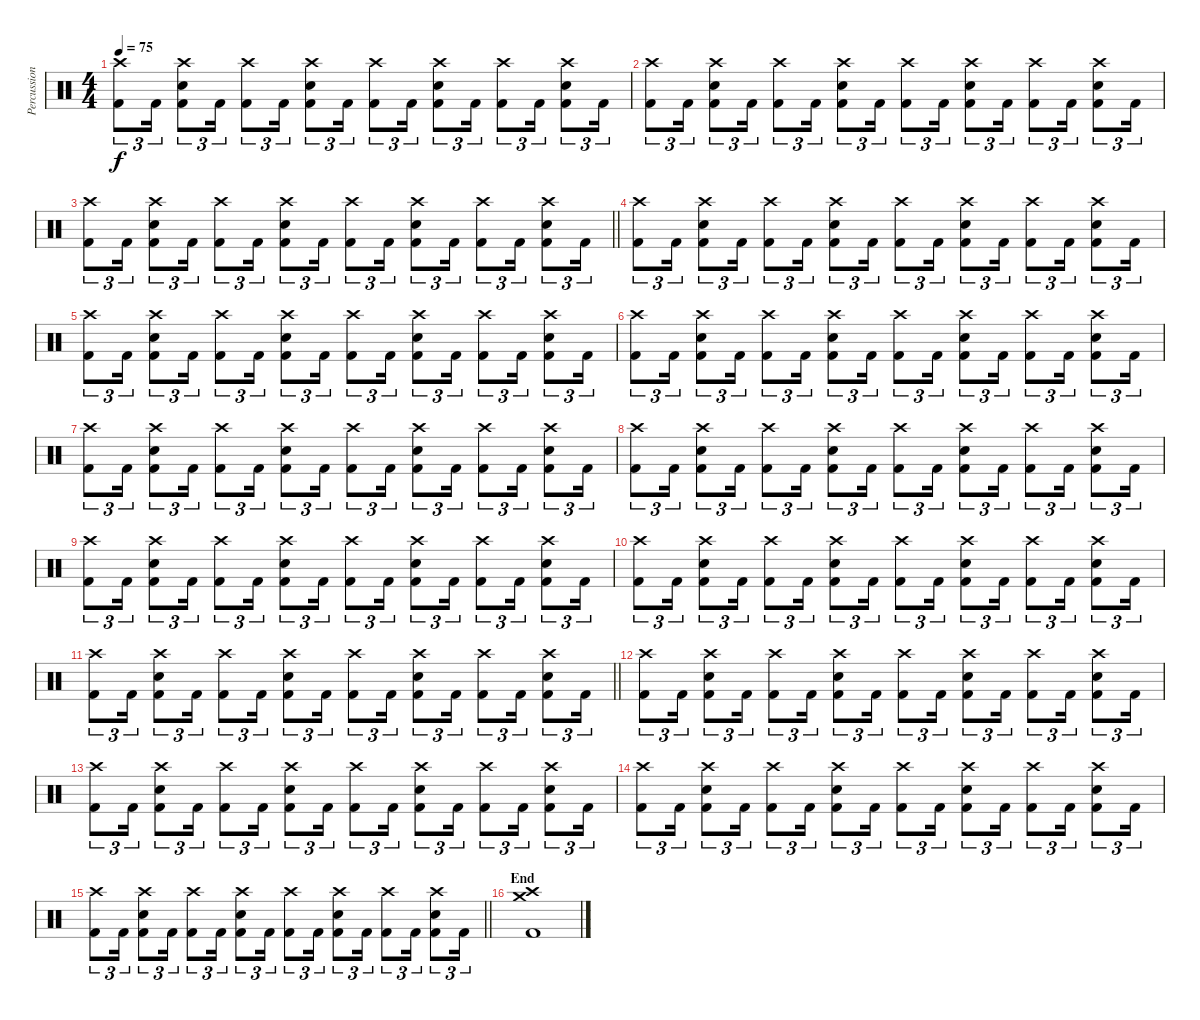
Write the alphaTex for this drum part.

\track ("Percussion" "Percussion") {instrument percussion}
\staff {score}
\articulation defaults
\ts (4 4)
\tempo 75
\clef neutral
\ks c
("Crash high (hit)" "Kick (hit) 2").8{tu (3 2) dy f} "Kick (hit) 2".16{tu (3 2)} ("Crash high (hit)" "Electric Snare (hit)" "Kick (hit) 2").8{tu (3 2)} "Kick (hit) 2".16{tu (3 2)} ("Crash high (hit)" "Kick (hit) 2").8{tu (3 2)} "Kick (hit) 2".16{tu (3 2)} ("Crash high (hit)" "Electric Snare (hit)" "Kick (hit) 2").8{tu (3 2)} "Kick (hit) 2".16{tu (3 2)} ("Crash high (hit)" "Kick (hit) 2").8{tu (3 2)} "Kick (hit) 2".16{tu (3 2)} ("Crash high (hit)" "Electric Snare (hit)" "Kick (hit) 2").8{tu (3 2)} "Kick (hit) 2".16{tu (3 2)} ("Crash high (hit)" "Kick (hit) 2").8{tu (3 2)} "Kick (hit) 2".16{tu (3 2)} ("Crash high (hit)" "Electric Snare (hit)" "Kick (hit) 2").8{tu (3 2)} "Kick (hit) 2".16{tu (3 2)} |
("Crash high (hit)" "Kick (hit) 2").8{tu (3 2)} "Kick (hit) 2".16{tu (3 2)} ("Crash high (hit)" "Electric Snare (hit)" "Kick (hit) 2").8{tu (3 2)} "Kick (hit) 2".16{tu (3 2)} ("Crash high (hit)" "Kick (hit) 2").8{tu (3 2)} "Kick (hit) 2".16{tu (3 2)} ("Crash high (hit)" "Electric Snare (hit)" "Kick (hit) 2").8{tu (3 2)} "Kick (hit) 2".16{tu (3 2)} ("Crash high (hit)" "Kick (hit) 2").8{tu (3 2)} "Kick (hit) 2".16{tu (3 2)} ("Crash high (hit)" "Electric Snare (hit)" "Kick (hit) 2").8{tu (3 2)} "Kick (hit) 2".16{tu (3 2)} ("Crash high (hit)" "Kick (hit) 2").8{tu (3 2)} "Kick (hit) 2".16{tu (3 2)} ("Crash high (hit)" "Electric Snare (hit)" "Kick (hit) 2").8{tu (3 2)} "Kick (hit) 2".16{tu (3 2)} |
\barLineRight lightlight
("Crash high (hit)" "Kick (hit) 2").8{tu (3 2)} "Kick (hit) 2".16{tu (3 2)} ("Crash high (hit)" "Electric Snare (hit)" "Kick (hit) 2").8{tu (3 2)} "Kick (hit) 2".16{tu (3 2)} ("Crash high (hit)" "Kick (hit) 2").8{tu (3 2)} "Kick (hit) 2".16{tu (3 2)} ("Crash high (hit)" "Electric Snare (hit)" "Kick (hit) 2").8{tu (3 2)} "Kick (hit) 2".16{tu (3 2)} ("Crash high (hit)" "Kick (hit) 2").8{tu (3 2)} "Kick (hit) 2".16{tu (3 2)} ("Crash high (hit)" "Electric Snare (hit)" "Kick (hit) 2").8{tu (3 2)} "Kick (hit) 2".16{tu (3 2)} ("Crash high (hit)" "Kick (hit) 2").8{tu (3 2)} "Kick (hit) 2".16{tu (3 2)} ("Crash high (hit)" "Electric Snare (hit)" "Kick (hit) 2").8{tu (3 2)} "Kick (hit) 2".16{tu (3 2)} |
\section ("" "")
("Crash high (hit)" "Kick (hit) 2").8{tu (3 2)} "Kick (hit) 2".16{tu (3 2)} ("Crash high (hit)" "Electric Snare (hit)" "Kick (hit) 2").8{tu (3 2)} "Kick (hit) 2".16{tu (3 2)} ("Crash high (hit)" "Kick (hit) 2").8{tu (3 2)} "Kick (hit) 2".16{tu (3 2)} ("Crash high (hit)" "Electric Snare (hit)" "Kick (hit) 2").8{tu (3 2)} "Kick (hit) 2".16{tu (3 2)} ("Crash high (hit)" "Kick (hit) 2").8{tu (3 2)} "Kick (hit) 2".16{tu (3 2)} ("Crash high (hit)" "Electric Snare (hit)" "Kick (hit) 2").8{tu (3 2)} "Kick (hit) 2".16{tu (3 2)} ("Crash high (hit)" "Kick (hit) 2").8{tu (3 2)} "Kick (hit) 2".16{tu (3 2)} ("Crash high (hit)" "Electric Snare (hit)" "Kick (hit) 2").8{tu (3 2)} "Kick (hit) 2".16{tu (3 2)} |
("Crash high (hit)" "Kick (hit) 2").8{tu (3 2)} "Kick (hit) 2".16{tu (3 2)} ("Crash high (hit)" "Electric Snare (hit)" "Kick (hit) 2").8{tu (3 2)} "Kick (hit) 2".16{tu (3 2)} ("Crash high (hit)" "Kick (hit) 2").8{tu (3 2)} "Kick (hit) 2".16{tu (3 2)} ("Crash high (hit)" "Electric Snare (hit)" "Kick (hit) 2").8{tu (3 2)} "Kick (hit) 2".16{tu (3 2)} ("Crash high (hit)" "Kick (hit) 2").8{tu (3 2)} "Kick (hit) 2".16{tu (3 2)} ("Crash high (hit)" "Electric Snare (hit)" "Kick (hit) 2").8{tu (3 2)} "Kick (hit) 2".16{tu (3 2)} ("Crash high (hit)" "Kick (hit) 2").8{tu (3 2)} "Kick (hit) 2".16{tu (3 2)} ("Crash high (hit)" "Electric Snare (hit)" "Kick (hit) 2").8{tu (3 2)} "Kick (hit) 2".16{tu (3 2)} |
("Crash high (hit)" "Kick (hit) 2").8{tu (3 2)} "Kick (hit) 2".16{tu (3 2)} ("Crash high (hit)" "Electric Snare (hit)" "Kick (hit) 2").8{tu (3 2)} "Kick (hit) 2".16{tu (3 2)} ("Crash high (hit)" "Kick (hit) 2").8{tu (3 2)} "Kick (hit) 2".16{tu (3 2)} ("Crash high (hit)" "Electric Snare (hit)" "Kick (hit) 2").8{tu (3 2)} "Kick (hit) 2".16{tu (3 2)} ("Crash high (hit)" "Kick (hit) 2").8{tu (3 2)} "Kick (hit) 2".16{tu (3 2)} ("Crash high (hit)" "Electric Snare (hit)" "Kick (hit) 2").8{tu (3 2)} "Kick (hit) 2".16{tu (3 2)} ("Crash high (hit)" "Kick (hit) 2").8{tu (3 2)} "Kick (hit) 2".16{tu (3 2)} ("Crash high (hit)" "Electric Snare (hit)" "Kick (hit) 2").8{tu (3 2)} "Kick (hit) 2".16{tu (3 2)} |
("Crash high (hit)" "Kick (hit) 2").8{tu (3 2)} "Kick (hit) 2".16{tu (3 2)} ("Crash high (hit)" "Electric Snare (hit)" "Kick (hit) 2").8{tu (3 2)} "Kick (hit) 2".16{tu (3 2)} ("Crash high (hit)" "Kick (hit) 2").8{tu (3 2)} "Kick (hit) 2".16{tu (3 2)} ("Crash high (hit)" "Electric Snare (hit)" "Kick (hit) 2").8{tu (3 2)} "Kick (hit) 2".16{tu (3 2)} ("Crash high (hit)" "Kick (hit) 2").8{tu (3 2)} "Kick (hit) 2".16{tu (3 2)} ("Crash high (hit)" "Electric Snare (hit)" "Kick (hit) 2").8{tu (3 2)} "Kick (hit) 2".16{tu (3 2)} ("Crash high (hit)" "Kick (hit) 2").8{tu (3 2)} "Kick (hit) 2".16{tu (3 2)} ("Crash high (hit)" "Electric Snare (hit)" "Kick (hit) 2").8{tu (3 2)} "Kick (hit) 2".16{tu (3 2)} |
("Crash high (hit)" "Kick (hit) 2").8{tu (3 2)} "Kick (hit) 2".16{tu (3 2)} ("Crash high (hit)" "Electric Snare (hit)" "Kick (hit) 2").8{tu (3 2)} "Kick (hit) 2".16{tu (3 2)} ("Crash high (hit)" "Kick (hit) 2").8{tu (3 2)} "Kick (hit) 2".16{tu (3 2)} ("Crash high (hit)" "Electric Snare (hit)" "Kick (hit) 2").8{tu (3 2)} "Kick (hit) 2".16{tu (3 2)} ("Crash high (hit)" "Kick (hit) 2").8{tu (3 2)} "Kick (hit) 2".16{tu (3 2)} ("Crash high (hit)" "Electric Snare (hit)" "Kick (hit) 2").8{tu (3 2)} "Kick (hit) 2".16{tu (3 2)} ("Crash high (hit)" "Kick (hit) 2").8{tu (3 2)} "Kick (hit) 2".16{tu (3 2)} ("Crash high (hit)" "Electric Snare (hit)" "Kick (hit) 2").8{tu (3 2)} "Kick (hit) 2".16{tu (3 2)} |
("Crash high (hit)" "Kick (hit) 2").8{tu (3 2)} "Kick (hit) 2".16{tu (3 2)} ("Crash high (hit)" "Electric Snare (hit)" "Kick (hit) 2").8{tu (3 2)} "Kick (hit) 2".16{tu (3 2)} ("Crash high (hit)" "Kick (hit) 2").8{tu (3 2)} "Kick (hit) 2".16{tu (3 2)} ("Crash high (hit)" "Electric Snare (hit)" "Kick (hit) 2").8{tu (3 2)} "Kick (hit) 2".16{tu (3 2)} ("Crash high (hit)" "Kick (hit) 2").8{tu (3 2)} "Kick (hit) 2".16{tu (3 2)} ("Crash high (hit)" "Electric Snare (hit)" "Kick (hit) 2").8{tu (3 2)} "Kick (hit) 2".16{tu (3 2)} ("Crash high (hit)" "Kick (hit) 2").8{tu (3 2)} "Kick (hit) 2".16{tu (3 2)} ("Crash high (hit)" "Electric Snare (hit)" "Kick (hit) 2").8{tu (3 2)} "Kick (hit) 2".16{tu (3 2)} |
("Crash high (hit)" "Kick (hit) 2").8{tu (3 2)} "Kick (hit) 2".16{tu (3 2)} ("Crash high (hit)" "Electric Snare (hit)" "Kick (hit) 2").8{tu (3 2)} "Kick (hit) 2".16{tu (3 2)} ("Crash high (hit)" "Kick (hit) 2").8{tu (3 2)} "Kick (hit) 2".16{tu (3 2)} ("Crash high (hit)" "Electric Snare (hit)" "Kick (hit) 2").8{tu (3 2)} "Kick (hit) 2".16{tu (3 2)} ("Crash high (hit)" "Kick (hit) 2").8{tu (3 2)} "Kick (hit) 2".16{tu (3 2)} ("Crash high (hit)" "Electric Snare (hit)" "Kick (hit) 2").8{tu (3 2)} "Kick (hit) 2".16{tu (3 2)} ("Crash high (hit)" "Kick (hit) 2").8{tu (3 2)} "Kick (hit) 2".16{tu (3 2)} ("Crash high (hit)" "Electric Snare (hit)" "Kick (hit) 2").8{tu (3 2)} "Kick (hit) 2".16{tu (3 2)} |
\barLineRight lightlight
("Crash high (hit)" "Kick (hit) 2").8{tu (3 2)} "Kick (hit) 2".16{tu (3 2)} ("Crash high (hit)" "Electric Snare (hit)" "Kick (hit) 2").8{tu (3 2)} "Kick (hit) 2".16{tu (3 2)} ("Crash high (hit)" "Kick (hit) 2").8{tu (3 2)} "Kick (hit) 2".16{tu (3 2)} ("Crash high (hit)" "Electric Snare (hit)" "Kick (hit) 2").8{tu (3 2)} "Kick (hit) 2".16{tu (3 2)} ("Crash high (hit)" "Kick (hit) 2").8{tu (3 2)} "Kick (hit) 2".16{tu (3 2)} ("Crash high (hit)" "Electric Snare (hit)" "Kick (hit) 2").8{tu (3 2)} "Kick (hit) 2".16{tu (3 2)} ("Crash high (hit)" "Kick (hit) 2").8{tu (3 2)} "Kick (hit) 2".16{tu (3 2)} ("Crash high (hit)" "Electric Snare (hit)" "Kick (hit) 2").8{tu (3 2)} "Kick (hit) 2".16{tu (3 2)} |
("Crash high (hit)" "Kick (hit) 2").8{tu (3 2)} "Kick (hit) 2".16{tu (3 2)} ("Crash high (hit)" "Electric Snare (hit)" "Kick (hit) 2").8{tu (3 2)} "Kick (hit) 2".16{tu (3 2)} ("Crash high (hit)" "Kick (hit) 2").8{tu (3 2)} "Kick (hit) 2".16{tu (3 2)} ("Crash high (hit)" "Electric Snare (hit)" "Kick (hit) 2").8{tu (3 2)} "Kick (hit) 2".16{tu (3 2)} ("Crash high (hit)" "Kick (hit) 2").8{tu (3 2)} "Kick (hit) 2".16{tu (3 2)} ("Crash high (hit)" "Electric Snare (hit)" "Kick (hit) 2").8{tu (3 2)} "Kick (hit) 2".16{tu (3 2)} ("Crash high (hit)" "Kick (hit) 2").8{tu (3 2)} "Kick (hit) 2".16{tu (3 2)} ("Crash high (hit)" "Electric Snare (hit)" "Kick (hit) 2").8{tu (3 2)} "Kick (hit) 2".16{tu (3 2)} |
("Crash high (hit)" "Kick (hit) 2").8{tu (3 2)} "Kick (hit) 2".16{tu (3 2)} ("Crash high (hit)" "Electric Snare (hit)" "Kick (hit) 2").8{tu (3 2)} "Kick (hit) 2".16{tu (3 2)} ("Crash high (hit)" "Kick (hit) 2").8{tu (3 2)} "Kick (hit) 2".16{tu (3 2)} ("Crash high (hit)" "Electric Snare (hit)" "Kick (hit) 2").8{tu (3 2)} "Kick (hit) 2".16{tu (3 2)} ("Crash high (hit)" "Kick (hit) 2").8{tu (3 2)} "Kick (hit) 2".16{tu (3 2)} ("Crash high (hit)" "Electric Snare (hit)" "Kick (hit) 2").8{tu (3 2)} "Kick (hit) 2".16{tu (3 2)} ("Crash high (hit)" "Kick (hit) 2").8{tu (3 2)} "Kick (hit) 2".16{tu (3 2)} ("Crash high (hit)" "Electric Snare (hit)" "Kick (hit) 2").8{tu (3 2)} "Kick (hit) 2".16{tu (3 2)} |
("Crash high (hit)" "Kick (hit) 2").8{tu (3 2)} "Kick (hit) 2".16{tu (3 2)} ("Crash high (hit)" "Electric Snare (hit)" "Kick (hit) 2").8{tu (3 2)} "Kick (hit) 2".16{tu (3 2)} ("Crash high (hit)" "Kick (hit) 2").8{tu (3 2)} "Kick (hit) 2".16{tu (3 2)} ("Crash high (hit)" "Electric Snare (hit)" "Kick (hit) 2").8{tu (3 2)} "Kick (hit) 2".16{tu (3 2)} ("Crash high (hit)" "Kick (hit) 2").8{tu (3 2)} "Kick (hit) 2".16{tu (3 2)} ("Crash high (hit)" "Electric Snare (hit)" "Kick (hit) 2").8{tu (3 2)} "Kick (hit) 2".16{tu (3 2)} ("Crash high (hit)" "Kick (hit) 2").8{tu (3 2)} "Kick (hit) 2".16{tu (3 2)} ("Crash high (hit)" "Electric Snare (hit)" "Kick (hit) 2").8{tu (3 2)} "Kick (hit) 2".16{tu (3 2)} |
\barLineRight lightlight
("Crash high (hit)" "Kick (hit) 2").8{tu (3 2)} "Kick (hit) 2".16{tu (3 2)} ("Crash high (hit)" "Electric Snare (hit)" "Kick (hit) 2").8{tu (3 2)} "Kick (hit) 2".16{tu (3 2)} ("Crash high (hit)" "Kick (hit) 2").8{tu (3 2)} "Kick (hit) 2".16{tu (3 2)} ("Crash high (hit)" "Electric Snare (hit)" "Kick (hit) 2").8{tu (3 2)} "Kick (hit) 2".16{tu (3 2)} ("Crash high (hit)" "Kick (hit) 2").8{tu (3 2)} "Kick (hit) 2".16{tu (3 2)} ("Crash high (hit)" "Electric Snare (hit)" "Kick (hit) 2").8{tu (3 2)} "Kick (hit) 2".16{tu (3 2)} ("Crash high (hit)" "Kick (hit) 2").8{tu (3 2)} "Kick (hit) 2".16{tu (3 2)} ("Crash high (hit)" "Electric Snare (hit)" "Kick (hit) 2").8{tu (3 2)} "Kick (hit) 2".16{tu (3 2)} |
\section ("" "End")
("Crash high (hit)" "Crash medium (hit)" "Kick (hit) 2").1
